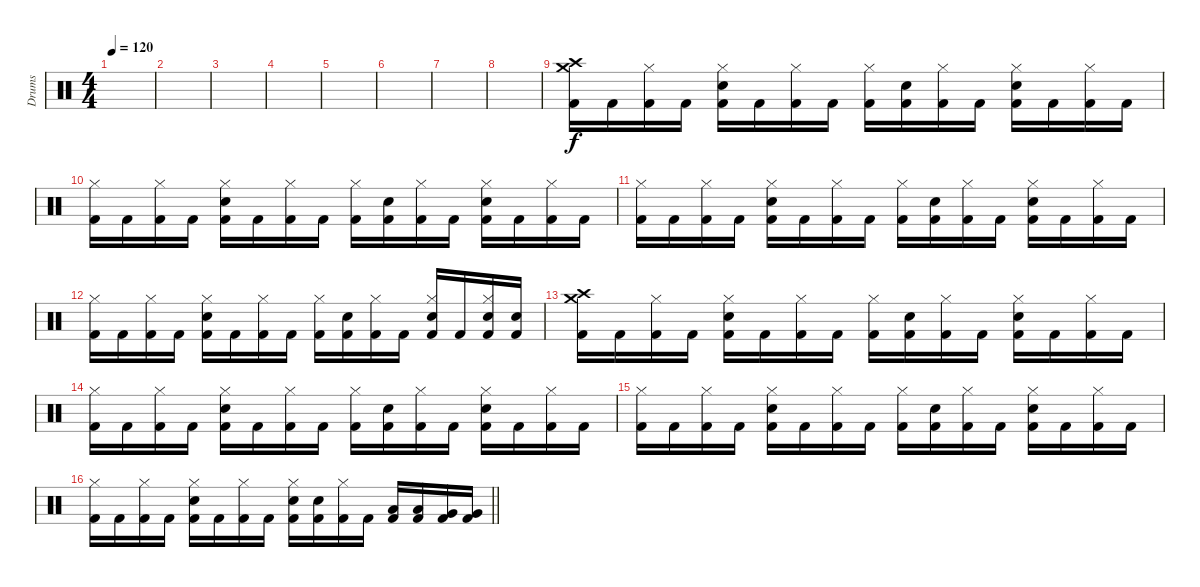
\track ("Drums" "Drums") {instrument percussion}
\staff {score}
\articulation defaults
\ts (4 4)
\tempo 120
\clef neutral
\ks c
|
|
|
|
|
|
|
|
("Crash medium (hit)" "Crash high (hit)" "Kick (hit) 2").16 "Kick (hit) 2".16 ("Hi-Hat (closed)" "Kick (hit) 2").16 "Kick (hit) 2".16 ("Hi-Hat (closed)" "Electric Snare (hit)" "Kick (hit) 2").16 "Kick (hit) 2".16 ("Hi-Hat (closed)" "Kick (hit) 2").16 "Kick (hit) 2".16 ("Hi-Hat (closed)" "Kick (hit) 2").16 ("Electric Snare (hit)" "Kick (hit) 2").16 ("Hi-Hat (closed)" "Kick (hit) 2").16 "Kick (hit) 2".16 ("Hi-Hat (closed)" "Electric Snare (hit)" "Kick (hit) 2").16 "Kick (hit) 2".16 ("Hi-Hat (closed)" "Kick (hit) 2").16 "Kick (hit) 2".16 |
("Hi-Hat (closed)" "Kick (hit) 2").16 "Kick (hit) 2".16 ("Hi-Hat (closed)" "Kick (hit) 2").16 "Kick (hit) 2".16 ("Hi-Hat (closed)" "Electric Snare (hit)" "Kick (hit) 2").16 "Kick (hit) 2".16 ("Hi-Hat (closed)" "Kick (hit) 2").16 "Kick (hit) 2".16 ("Hi-Hat (closed)" "Kick (hit) 2").16 ("Electric Snare (hit)" "Kick (hit) 2").16 ("Hi-Hat (closed)" "Kick (hit) 2").16 "Kick (hit) 2".16 ("Hi-Hat (closed)" "Electric Snare (hit)" "Kick (hit) 2").16 "Kick (hit) 2".16 ("Hi-Hat (closed)" "Kick (hit) 2").16 "Kick (hit) 2".16 |
("Hi-Hat (closed)" "Kick (hit) 2").16 "Kick (hit) 2".16 ("Hi-Hat (closed)" "Kick (hit) 2").16 "Kick (hit) 2".16 ("Hi-Hat (closed)" "Electric Snare (hit)" "Kick (hit) 2").16 "Kick (hit) 2".16 ("Hi-Hat (closed)" "Kick (hit) 2").16 "Kick (hit) 2".16 ("Hi-Hat (closed)" "Kick (hit) 2").16 ("Electric Snare (hit)" "Kick (hit) 2").16 ("Hi-Hat (closed)" "Kick (hit) 2").16 "Kick (hit) 2".16 ("Hi-Hat (closed)" "Electric Snare (hit)" "Kick (hit) 2").16 "Kick (hit) 2".16 ("Hi-Hat (closed)" "Kick (hit) 2").16 "Kick (hit) 2".16 |
("Hi-Hat (closed)" "Kick (hit) 2").16 "Kick (hit) 2".16 ("Hi-Hat (closed)" "Kick (hit) 2").16 "Kick (hit) 2".16 ("Hi-Hat (closed)" "Electric Snare (hit)" "Kick (hit) 2").16 "Kick (hit) 2".16 ("Hi-Hat (closed)" "Kick (hit) 2").16 "Kick (hit) 2".16 ("Hi-Hat (closed)" "Kick (hit) 2").16 ("Electric Snare (hit)" "Kick (hit) 2").16 ("Hi-Hat (closed)" "Kick (hit) 2").16 "Kick (hit) 2".16 ("Hi-Hat (closed)" "Electric Snare (hit)" "Kick (hit) 2").16 "Kick (hit) 2".16 ("Hi-Hat (closed)" "Electric Snare (hit)" "Kick (hit) 2").16 ("Electric Snare (hit)" "Kick (hit) 2").16 |
("Crash medium (hit)" "Crash high (hit)" "Kick (hit) 2").16 "Kick (hit) 2".16 ("Hi-Hat (closed)" "Kick (hit) 2").16 "Kick (hit) 2".16 ("Hi-Hat (closed)" "Electric Snare (hit)" "Kick (hit) 2").16 "Kick (hit) 2".16 ("Hi-Hat (closed)" "Kick (hit) 2").16 "Kick (hit) 2".16 ("Hi-Hat (closed)" "Kick (hit) 2").16 ("Electric Snare (hit)" "Kick (hit) 2").16 ("Hi-Hat (closed)" "Kick (hit) 2").16 "Kick (hit) 2".16 ("Hi-Hat (closed)" "Electric Snare (hit)" "Kick (hit) 2").16 "Kick (hit) 2".16 ("Hi-Hat (closed)" "Kick (hit) 2").16 "Kick (hit) 2".16 |
("Hi-Hat (closed)" "Kick (hit) 2").16 "Kick (hit) 2".16 ("Hi-Hat (closed)" "Kick (hit) 2").16 "Kick (hit) 2".16 ("Hi-Hat (closed)" "Electric Snare (hit)" "Kick (hit) 2").16 "Kick (hit) 2".16 ("Hi-Hat (closed)" "Kick (hit) 2").16 "Kick (hit) 2".16 ("Hi-Hat (closed)" "Kick (hit) 2").16 ("Electric Snare (hit)" "Kick (hit) 2").16 ("Hi-Hat (closed)" "Kick (hit) 2").16 "Kick (hit) 2".16 ("Hi-Hat (closed)" "Electric Snare (hit)" "Kick (hit) 2").16 "Kick (hit) 2".16 ("Hi-Hat (closed)" "Kick (hit) 2").16 "Kick (hit) 2".16 |
("Hi-Hat (closed)" "Kick (hit) 2").16 "Kick (hit) 2".16 ("Hi-Hat (closed)" "Kick (hit) 2").16 "Kick (hit) 2".16 ("Hi-Hat (closed)" "Electric Snare (hit)" "Kick (hit) 2").16 "Kick (hit) 2".16 ("Hi-Hat (closed)" "Kick (hit) 2").16 "Kick (hit) 2".16 ("Hi-Hat (closed)" "Kick (hit) 2").16 ("Electric Snare (hit)" "Kick (hit) 2").16 ("Hi-Hat (closed)" "Kick (hit) 2").16 "Kick (hit) 2".16 ("Hi-Hat (closed)" "Electric Snare (hit)" "Kick (hit) 2").16 "Kick (hit) 2".16 ("Hi-Hat (closed)" "Kick (hit) 2").16 "Kick (hit) 2".16 |
\barLineRight lightlight
("Hi-Hat (closed)" "Kick (hit) 2").16 "Kick (hit) 2".16 ("Hi-Hat (closed)" "Kick (hit) 2").16 "Kick (hit) 2".16 ("Hi-Hat (closed)" "Electric Snare (hit)" "Kick (hit) 2").16 "Kick (hit) 2".16 ("Hi-Hat (closed)" "Kick (hit) 2").16 "Kick (hit) 2".16 ("Hi-Hat (closed)" "Electric Snare (hit)" "Kick (hit) 2").16 ("Electric Snare (hit)" "Kick (hit) 2").16 ("Hi-Hat (closed)" "Kick (hit) 2").16 "Kick (hit) 2".16 ("Low Floor Tom (hit)" "Kick (hit) 2").16 ("Low Floor Tom (hit)" "Kick (hit) 2").16 ("Very Low Tom (hit)" "Kick (hit) 2").16 ("Very Low Tom (hit)" "Kick (hit) 2").16
